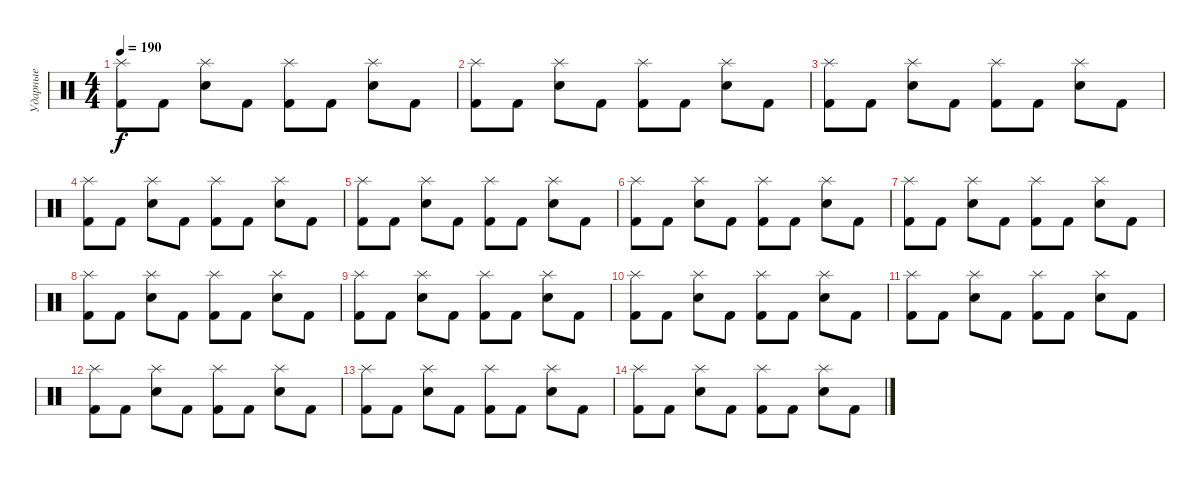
\track ("Ударные" "Ударные") {instrument percussion}
\staff {score}
\articulation defaults
\ts (4 4)
\tempo 190
\clef neutral
\ks c
("Splash (hit)" "Kick (hit) 2").8{dy f} "Kick (hit) 2".8 ("Splash (hit)" "Electric Snare (hit)").8 "Kick (hit) 2".8 ("Splash (hit)" "Kick (hit) 2").8 "Kick (hit) 2".8 ("Splash (hit)" "Electric Snare (hit)").8 "Kick (hit) 2".8 |
("Splash (hit)" "Kick (hit) 2").8 "Kick (hit) 2".8 ("Splash (hit)" "Electric Snare (hit)").8 "Kick (hit) 2".8 ("Splash (hit)" "Kick (hit) 2").8 "Kick (hit) 2".8 ("Splash (hit)" "Electric Snare (hit)").8 "Kick (hit) 2".8 |
("Splash (hit)" "Kick (hit) 2").8 "Kick (hit) 2".8 ("Splash (hit)" "Electric Snare (hit)").8 "Kick (hit) 2".8 ("Splash (hit)" "Kick (hit) 2").8 "Kick (hit) 2".8 ("Splash (hit)" "Electric Snare (hit)").8 "Kick (hit) 2".8 |
("Splash (hit)" "Kick (hit) 2").8 "Kick (hit) 2".8 ("Splash (hit)" "Electric Snare (hit)").8 "Kick (hit) 2".8 ("Splash (hit)" "Kick (hit) 2").8 "Kick (hit) 2".8 ("Splash (hit)" "Electric Snare (hit)").8 "Kick (hit) 2".8 |
("Splash (hit)" "Kick (hit) 2").8 "Kick (hit) 2".8 ("Splash (hit)" "Electric Snare (hit)").8 "Kick (hit) 2".8 ("Splash (hit)" "Kick (hit) 2").8 "Kick (hit) 2".8 ("Splash (hit)" "Electric Snare (hit)").8 "Kick (hit) 2".8 |
("Splash (hit)" "Kick (hit) 2").8 "Kick (hit) 2".8 ("Splash (hit)" "Electric Snare (hit)").8 "Kick (hit) 2".8 ("Splash (hit)" "Kick (hit) 2").8 "Kick (hit) 2".8 ("Splash (hit)" "Electric Snare (hit)").8 "Kick (hit) 2".8 |
("Splash (hit)" "Kick (hit) 2").8 "Kick (hit) 2".8 ("Splash (hit)" "Electric Snare (hit)").8 "Kick (hit) 2".8 ("Splash (hit)" "Kick (hit) 2").8 "Kick (hit) 2".8 ("Splash (hit)" "Electric Snare (hit)").8 "Kick (hit) 2".8 |
("Splash (hit)" "Kick (hit) 2").8 "Kick (hit) 2".8 ("Splash (hit)" "Electric Snare (hit)").8 "Kick (hit) 2".8 ("Splash (hit)" "Kick (hit) 2").8 "Kick (hit) 2".8 ("Splash (hit)" "Electric Snare (hit)").8 "Kick (hit) 2".8 |
("Splash (hit)" "Kick (hit) 2").8 "Kick (hit) 2".8 ("Splash (hit)" "Electric Snare (hit)").8 "Kick (hit) 2".8 ("Splash (hit)" "Kick (hit) 2").8 "Kick (hit) 2".8 ("Splash (hit)" "Electric Snare (hit)").8 "Kick (hit) 2".8 |
("Splash (hit)" "Kick (hit) 2").8 "Kick (hit) 2".8 ("Splash (hit)" "Electric Snare (hit)").8 "Kick (hit) 2".8 ("Splash (hit)" "Kick (hit) 2").8 "Kick (hit) 2".8 ("Splash (hit)" "Electric Snare (hit)").8 "Kick (hit) 2".8 |
("Splash (hit)" "Kick (hit) 2").8 "Kick (hit) 2".8 ("Splash (hit)" "Electric Snare (hit)").8 "Kick (hit) 2".8 ("Splash (hit)" "Kick (hit) 2").8 "Kick (hit) 2".8 ("Splash (hit)" "Electric Snare (hit)").8 "Kick (hit) 2".8 |
("Splash (hit)" "Kick (hit) 2").8 "Kick (hit) 2".8 ("Splash (hit)" "Electric Snare (hit)").8 "Kick (hit) 2".8 ("Splash (hit)" "Kick (hit) 2").8 "Kick (hit) 2".8 ("Splash (hit)" "Electric Snare (hit)").8 "Kick (hit) 2".8 |
("Splash (hit)" "Kick (hit) 2").8 "Kick (hit) 2".8 ("Splash (hit)" "Electric Snare (hit)").8 "Kick (hit) 2".8 ("Splash (hit)" "Kick (hit) 2").8 "Kick (hit) 2".8 ("Splash (hit)" "Electric Snare (hit)").8 "Kick (hit) 2".8 |
("Splash (hit)" "Kick (hit) 2").8 "Kick (hit) 2".8 ("Splash (hit)" "Electric Snare (hit)").8 "Kick (hit) 2".8 ("Splash (hit)" "Kick (hit) 2").8 "Kick (hit) 2".8 ("Splash (hit)" "Electric Snare (hit)").8 "Kick (hit) 2".8
